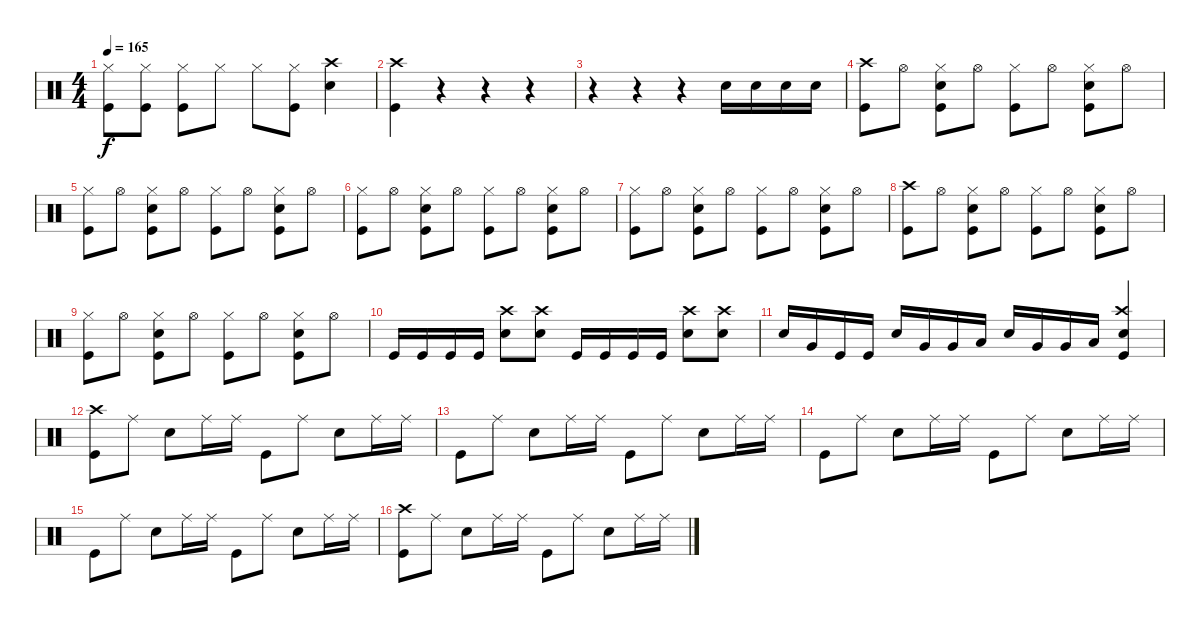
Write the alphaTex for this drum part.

\track "" {instrument percussion}
\staff {score}
\articulation defaults
\ts (4 4)
\tempo 165
\clef neutral
\ks c
("Hi-Hat (closed)" "Kick (hit)").8{dy f} ("Hi-Hat (closed)" "Kick (hit)").8 ("Hi-Hat (closed)" "Kick (hit)").8 "Hi-Hat (closed)".8 "Hi-Hat (closed)".8 ("Hi-Hat (closed)" "Kick (hit)").8 ("Crash high (hit)" "Electric Snare (hit)").4 |
("Crash high (hit)" "Kick (hit)").4 r.4 r.4 r.4 |
r.4 r.4 r.4 "Electric Snare (hit)".16 "Electric Snare (hit)".16 "Electric Snare (hit)".16 "Electric Snare (hit)".16 |
("Crash high (hit)" "Kick (hit)").8 "Hi-Hat (open)".8 ("Hi-Hat (closed)" "Electric Snare (hit)" "Kick (hit)").8 "Hi-Hat (open)".8 ("Hi-Hat (closed)" "Kick (hit)").8 "Hi-Hat (open)".8 ("Hi-Hat (closed)" "Electric Snare (hit)" "Kick (hit)").8 "Hi-Hat (open)".8 |
("Hi-Hat (closed)" "Kick (hit)").8 "Hi-Hat (open)".8 ("Hi-Hat (closed)" "Electric Snare (hit)" "Kick (hit)").8 "Hi-Hat (open)".8 ("Hi-Hat (closed)" "Kick (hit)").8 "Hi-Hat (open)".8 ("Hi-Hat (closed)" "Electric Snare (hit)" "Kick (hit)").8 "Hi-Hat (open)".8 |
("Hi-Hat (closed)" "Kick (hit)").8 "Hi-Hat (open)".8 ("Hi-Hat (closed)" "Electric Snare (hit)" "Kick (hit)").8 "Hi-Hat (open)".8 ("Hi-Hat (closed)" "Kick (hit)").8 "Hi-Hat (open)".8 ("Hi-Hat (closed)" "Electric Snare (hit)" "Kick (hit)").8 "Hi-Hat (open)".8 |
("Hi-Hat (closed)" "Kick (hit)").8 "Hi-Hat (open)".8 ("Hi-Hat (closed)" "Electric Snare (hit)" "Kick (hit)").8 "Hi-Hat (open)".8 ("Hi-Hat (closed)" "Kick (hit)").8 "Hi-Hat (open)".8 ("Hi-Hat (closed)" "Electric Snare (hit)" "Kick (hit)").8 "Hi-Hat (open)".8 |
("Crash high (hit)" "Kick (hit)").8 "Hi-Hat (open)".8 ("Hi-Hat (closed)" "Electric Snare (hit)" "Kick (hit)").8 "Hi-Hat (open)".8 ("Hi-Hat (closed)" "Kick (hit)").8 "Hi-Hat (open)".8 ("Hi-Hat (closed)" "Electric Snare (hit)" "Kick (hit)").8 "Hi-Hat (open)".8 |
("Hi-Hat (closed)" "Kick (hit)").8 "Hi-Hat (open)".8 ("Hi-Hat (closed)" "Electric Snare (hit)" "Kick (hit)").8 "Hi-Hat (open)".8 ("Hi-Hat (closed)" "Kick (hit)").8 "Hi-Hat (open)".8 ("Hi-Hat (closed)" "Electric Snare (hit)" "Kick (hit)").8 "Hi-Hat (open)".8 |
"Kick (hit)".16 "Kick (hit)".16 "Kick (hit)".16 "Kick (hit)".16 ("Crash high (hit)" "Electric Snare (hit)").8 ("Crash high (hit)" "Electric Snare (hit)").8 "Kick (hit)".16 "Kick (hit)".16 "Kick (hit)".16 "Kick (hit)".16 ("Crash high (hit)" "Electric Snare (hit)").8 ("Crash high (hit)" "Electric Snare (hit)").8 |
"Electric Snare (hit)".16 "Very Low Tom (hit)".16 "Kick (hit)".16 "Kick (hit)".16 "Electric Snare (hit)".16 "Very Low Tom (hit)".16 "Very Low Tom (hit)".16 "Low Tom (hit)".16 "Electric Snare (hit)".16 "Very Low Tom (hit)".16 "Very Low Tom (hit)".16 "Low Tom (hit)".16 ("Crash high (hit)" "Electric Snare (hit)" "Kick (hit)").4 |
("Crash high (hit)" "Kick (hit)").8 "Ride (middle)".8 "Electric Snare (hit)".8 "Ride (middle)".16 "Ride (middle)".16 "Kick (hit)".8 "Ride (middle)".8 "Electric Snare (hit)".8 "Ride (middle)".16 "Ride (middle)".16 |
"Kick (hit)".8 "Ride (middle)".8 "Electric Snare (hit)".8 "Ride (middle)".16 "Ride (middle)".16 "Kick (hit)".8 "Ride (middle)".8 "Electric Snare (hit)".8 "Ride (middle)".16 "Ride (middle)".16 |
"Kick (hit)".8 "Ride (middle)".8 "Electric Snare (hit)".8 "Ride (middle)".16 "Ride (middle)".16 "Kick (hit)".8 "Ride (middle)".8 "Electric Snare (hit)".8 "Ride (middle)".16 "Ride (middle)".16 |
"Kick (hit)".8 "Ride (middle)".8 "Electric Snare (hit)".8 "Ride (middle)".16 "Ride (middle)".16 "Kick (hit)".8 "Ride (middle)".8 "Electric Snare (hit)".8 "Ride (middle)".16 "Ride (middle)".16 |
("Crash high (hit)" "Kick (hit)").8 "Ride (middle)".8 "Electric Snare (hit)".8 "Ride (middle)".16 "Ride (middle)".16 "Kick (hit)".8 "Ride (middle)".8 "Electric Snare (hit)".8 "Ride (middle)".16 "Ride (middle)".16
